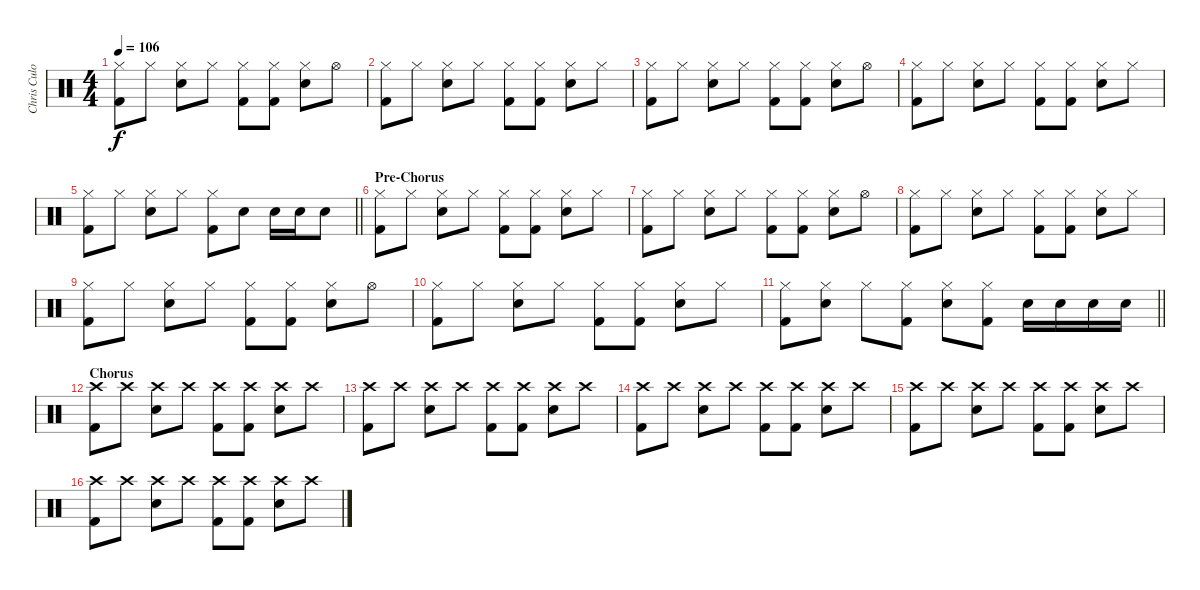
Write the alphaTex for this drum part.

\track ("Chris Culos" "Chris Culo") {instrument percussion}
\staff {score}
\articulation defaults
\ts (4 4)
\tempo 106
\clef neutral
\ks c
("Hi-Hat (closed)" "Kick (hit) 2").8{dy f} "Hi-Hat (closed)".8 ("Hi-Hat (closed)" "Snare (hit) 2").8 "Hi-Hat (closed)".8 ("Hi-Hat (closed)" "Kick (hit) 2").8 ("Hi-Hat (closed)" "Kick (hit) 2").8 ("Hi-Hat (closed)" "Snare (hit) 2").8 "Hi-Hat (open)".8 |
("Hi-Hat (closed)" "Kick (hit) 2").8 "Hi-Hat (closed)".8 ("Hi-Hat (closed)" "Snare (hit) 2").8 "Hi-Hat (closed)".8 ("Hi-Hat (closed)" "Kick (hit) 2").8 ("Hi-Hat (closed)" "Kick (hit) 2").8 ("Hi-Hat (closed)" "Snare (hit) 2").8 "Hi-Hat (closed)".8 |
("Hi-Hat (closed)" "Kick (hit) 2").8 "Hi-Hat (closed)".8 ("Hi-Hat (closed)" "Snare (hit) 2").8 "Hi-Hat (closed)".8 ("Hi-Hat (closed)" "Kick (hit) 2").8 ("Hi-Hat (closed)" "Kick (hit) 2").8 ("Hi-Hat (closed)" "Snare (hit) 2").8 "Hi-Hat (open)".8 |
("Hi-Hat (closed)" "Kick (hit) 2").8 "Hi-Hat (closed)".8 ("Hi-Hat (closed)" "Snare (hit) 2").8 "Hi-Hat (closed)".8 ("Hi-Hat (closed)" "Kick (hit) 2").8 ("Hi-Hat (closed)" "Kick (hit) 2").8 ("Hi-Hat (closed)" "Snare (hit) 2").8 "Hi-Hat (closed)".8 |
\barLineRight lightlight
("Hi-Hat (closed)" "Kick (hit) 2").8 "Hi-Hat (closed)".8 ("Hi-Hat (closed)" "Snare (hit) 2").8 "Hi-Hat (closed)".8 ("Hi-Hat (closed)" "Kick (hit) 2").8 "Snare (hit) 2".8 "Snare (hit) 2".16 "Snare (hit) 2".16 "Snare (hit) 2".8 |
\section ("" "Pre-Chorus")
("Hi-Hat (closed)" "Kick (hit) 2").8 "Hi-Hat (closed)".8 ("Hi-Hat (closed)" "Snare (hit) 2").8 "Hi-Hat (closed)".8 ("Hi-Hat (closed)" "Kick (hit) 2").8 ("Hi-Hat (closed)" "Kick (hit) 2").8 ("Hi-Hat (closed)" "Snare (hit) 2").8 "Hi-Hat (closed)".8 |
("Hi-Hat (closed)" "Kick (hit) 2").8 "Hi-Hat (closed)".8 ("Hi-Hat (closed)" "Snare (hit) 2").8 "Hi-Hat (closed)".8 ("Hi-Hat (closed)" "Kick (hit) 2").8 ("Hi-Hat (closed)" "Kick (hit) 2").8 ("Hi-Hat (closed)" "Snare (hit) 2").8 "Hi-Hat (open)".8 |
("Hi-Hat (closed)" "Kick (hit) 2").8 "Hi-Hat (closed)".8 ("Hi-Hat (closed)" "Snare (hit) 2").8 "Hi-Hat (closed)".8 ("Hi-Hat (closed)" "Kick (hit) 2").8 ("Hi-Hat (closed)" "Kick (hit) 2").8 ("Hi-Hat (closed)" "Snare (hit) 2").8 "Hi-Hat (closed)".8 |
("Hi-Hat (closed)" "Kick (hit) 2").8 "Hi-Hat (closed)".8 ("Hi-Hat (closed)" "Snare (hit) 2").8 "Hi-Hat (closed)".8 ("Hi-Hat (closed)" "Kick (hit) 2").8 ("Hi-Hat (closed)" "Kick (hit) 2").8 ("Hi-Hat (closed)" "Snare (hit) 2").8 "Hi-Hat (open)".8 |
("Hi-Hat (closed)" "Kick (hit) 2").8 "Hi-Hat (closed)".8 ("Hi-Hat (closed)" "Snare (hit) 2").8 "Hi-Hat (closed)".8 ("Hi-Hat (closed)" "Kick (hit) 2").8 ("Hi-Hat (closed)" "Kick (hit) 2").8 ("Hi-Hat (closed)" "Snare (hit) 2").8 "Hi-Hat (closed)".8 |
\barLineRight lightlight
("Hi-Hat (closed)" "Kick (hit) 2").8 ("Hi-Hat (closed)" "Snare (hit) 2").8 "Hi-Hat (closed)".8 ("Hi-Hat (closed)" "Kick (hit) 2").8 ("Hi-Hat (closed)" "Snare (hit) 2").8 ("Hi-Hat (closed)" "Kick (hit) 2").8 "Snare (hit) 2".16 "Snare (hit) 2".16 "Snare (hit) 2".16 "Snare (hit) 2".16 |
\section ("" "Chorus")
("Crash high (hit)" "Kick (hit) 2").8 "Crash high (hit)".8 ("Crash high (hit)" "Snare (hit) 2").8 "Crash high (hit)".8 ("Crash high (hit)" "Kick (hit) 2").8 ("Crash high (hit)" "Kick (hit) 2").8 ("Crash high (hit)" "Snare (hit) 2").8 "Crash high (hit)".8 |
("Crash high (hit)" "Kick (hit) 2").8 "Crash high (hit)".8 ("Crash high (hit)" "Snare (hit) 2").8 "Crash high (hit)".8 ("Crash high (hit)" "Kick (hit) 2").8 ("Crash high (hit)" "Kick (hit) 2").8 ("Crash high (hit)" "Snare (hit) 2").8 "Crash high (hit)".8 |
("Crash high (hit)" "Kick (hit) 2").8 "Crash high (hit)".8 ("Crash high (hit)" "Snare (hit) 2").8 "Crash high (hit)".8 ("Crash high (hit)" "Kick (hit) 2").8 ("Crash high (hit)" "Kick (hit) 2").8 ("Crash high (hit)" "Snare (hit) 2").8 "Crash high (hit)".8 |
("Crash high (hit)" "Kick (hit) 2").8 "Crash high (hit)".8 ("Crash high (hit)" "Snare (hit) 2").8 "Crash high (hit)".8 ("Crash high (hit)" "Kick (hit) 2").8 ("Crash high (hit)" "Kick (hit) 2").8 ("Crash high (hit)" "Snare (hit) 2").8 "Crash high (hit)".8 |
("Crash high (hit)" "Kick (hit) 2").8 "Crash high (hit)".8 ("Crash high (hit)" "Snare (hit) 2").8 "Crash high (hit)".8 ("Crash high (hit)" "Kick (hit) 2").8 ("Crash high (hit)" "Kick (hit) 2").8 ("Crash high (hit)" "Snare (hit) 2").8 "Crash high (hit)".8
